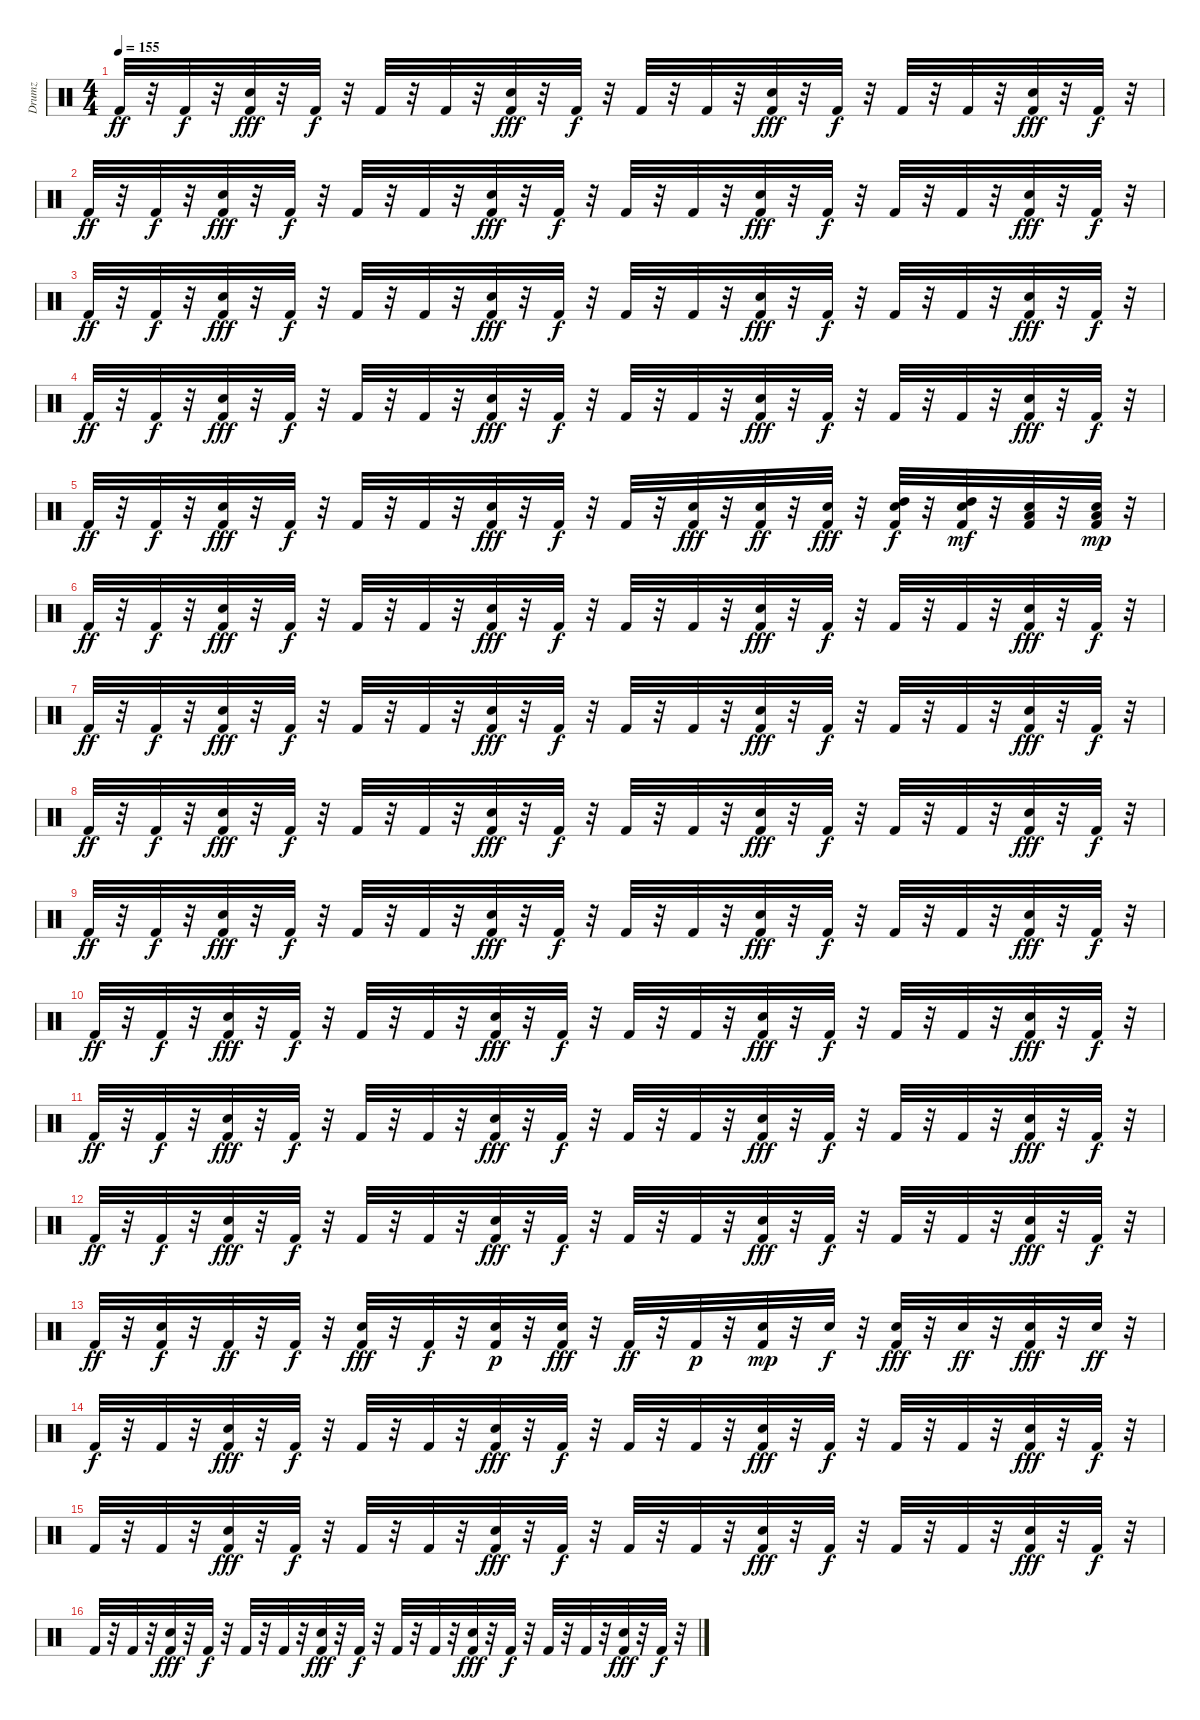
\track ("Drumz" "Drumz") {instrument percussion}
\staff {score}
\articulation defaults
\ts (4 4)
\tempo 155
\clef neutral
\ks c "Kick (hit) 2".32{dy ff}
r.32 "Kick (hit) 2".32{dy f} r.32 ("Kick (hit) 2" "Snare (hit) 2").32{dy fff} r.32 "Kick (hit) 2".32{dy f} r.32 "Kick (hit) 2".32 r.32 "Kick (hit) 2".32 r.32 ("Kick (hit) 2" "Snare (hit) 2").32{dy fff} r.32 "Kick (hit) 2".32{dy f} r.32 "Kick (hit) 2".32 r.32 "Kick (hit) 2".32 r.32 ("Kick (hit) 2" "Snare (hit) 2").32{dy fff} r.32 "Kick (hit) 2".32{dy f} r.32 "Kick (hit) 2".32 r.32 "Kick (hit) 2".32 r.32 ("Kick (hit) 2" "Snare (hit) 2").32{dy fff} r.32 "Kick (hit) 2".32{dy f} r.32 |
"Kick (hit) 2".32{dy ff} r.32 "Kick (hit) 2".32{dy f} r.32 ("Kick (hit) 2" "Snare (hit) 2").32{dy fff} r.32 "Kick (hit) 2".32{dy f} r.32 "Kick (hit) 2".32 r.32 "Kick (hit) 2".32 r.32 ("Kick (hit) 2" "Snare (hit) 2").32{dy fff} r.32 "Kick (hit) 2".32{dy f} r.32 "Kick (hit) 2".32 r.32 "Kick (hit) 2".32 r.32 ("Kick (hit) 2" "Snare (hit) 2").32{dy fff} r.32 "Kick (hit) 2".32{dy f} r.32 "Kick (hit) 2".32 r.32 "Kick (hit) 2".32 r.32 ("Kick (hit) 2" "Snare (hit) 2").32{dy fff} r.32 "Kick (hit) 2".32{dy f} r.32 |
"Kick (hit) 2".32{dy ff} r.32 "Kick (hit) 2".32{dy f} r.32 ("Kick (hit) 2" "Snare (hit) 2").32{dy fff} r.32 "Kick (hit) 2".32{dy f} r.32 "Kick (hit) 2".32 r.32 "Kick (hit) 2".32 r.32 ("Kick (hit) 2" "Snare (hit) 2").32{dy fff} r.32 "Kick (hit) 2".32{dy f} r.32 "Kick (hit) 2".32 r.32 "Kick (hit) 2".32 r.32 ("Kick (hit) 2" "Snare (hit) 2").32{dy fff} r.32 "Kick (hit) 2".32{dy f} r.32 "Kick (hit) 2".32 r.32 "Kick (hit) 2".32 r.32 ("Kick (hit) 2" "Snare (hit) 2").32{dy fff} r.32 "Kick (hit) 2".32{dy f} r.32 |
"Kick (hit) 2".32{dy ff} r.32 "Kick (hit) 2".32{dy f} r.32 ("Kick (hit) 2" "Snare (hit) 2").32{dy fff} r.32 "Kick (hit) 2".32{dy f} r.32 "Kick (hit) 2".32 r.32 "Kick (hit) 2".32 r.32 ("Kick (hit) 2" "Snare (hit) 2").32{dy fff} r.32 "Kick (hit) 2".32{dy f} r.32 "Kick (hit) 2".32 r.32 "Kick (hit) 2".32 r.32 ("Kick (hit) 2" "Snare (hit) 2").32{dy fff} r.32 "Kick (hit) 2".32{dy f} r.32 "Kick (hit) 2".32 r.32 "Kick (hit) 2".32 r.32 ("Kick (hit) 2" "Snare (hit) 2").32{dy fff} r.32 "Kick (hit) 2".32{dy f} r.32 |
"Kick (hit) 2".32{dy ff} r.32 "Kick (hit) 2".32{dy f} r.32 ("Kick (hit) 2" "Snare (hit) 2").32{dy fff} r.32 "Kick (hit) 2".32{dy f} r.32 "Kick (hit) 2".32 r.32 "Kick (hit) 2".32 r.32 ("Kick (hit) 2" "Snare (hit) 2").32{dy fff} r.32 "Kick (hit) 2".32{dy f} r.32 "Kick (hit) 2".32 r.32 ("Kick (hit) 2" "Snare (hit) 2").32{dy fff} r.32 ("Kick (hit) 2" "Snare (hit) 2").32{dy ff} r.32 ("Kick (hit) 2" "Snare (hit) 2").32{dy fff} r.32 ("Snare (hit) 2" "High Tom (hit)" "Kick (hit) 2").32{dy f} r.32 ("Snare (hit) 2" "High Tom (hit)" "Kick (hit) 2").32{dy mf} r.32 ("Snare (hit) 2" "Low Tom (hit)" "Kick (hit) 2").32 r.32 ("Kick (hit) 2" "Snare (hit) 2" "Low Tom (hit)").32{dy mp} r.32 |
"Kick (hit) 2".32{dy ff} r.32 "Kick (hit) 2".32{dy f} r.32 ("Kick (hit) 2" "Snare (hit) 2").32{dy fff} r.32 "Kick (hit) 2".32{dy f} r.32 "Kick (hit) 2".32 r.32 "Kick (hit) 2".32 r.32 ("Kick (hit) 2" "Snare (hit) 2").32{dy fff} r.32 "Kick (hit) 2".32{dy f} r.32 "Kick (hit) 2".32 r.32 "Kick (hit) 2".32 r.32 ("Kick (hit) 2" "Snare (hit) 2").32{dy fff} r.32 "Kick (hit) 2".32{dy f} r.32 "Kick (hit) 2".32 r.32 "Kick (hit) 2".32 r.32 ("Kick (hit) 2" "Snare (hit) 2").32{dy fff} r.32 "Kick (hit) 2".32{dy f} r.32 |
"Kick (hit) 2".32{dy ff} r.32 "Kick (hit) 2".32{dy f} r.32 ("Kick (hit) 2" "Snare (hit) 2").32{dy fff} r.32 "Kick (hit) 2".32{dy f} r.32 "Kick (hit) 2".32 r.32 "Kick (hit) 2".32 r.32 ("Kick (hit) 2" "Snare (hit) 2").32{dy fff} r.32 "Kick (hit) 2".32{dy f} r.32 "Kick (hit) 2".32 r.32 "Kick (hit) 2".32 r.32 ("Kick (hit) 2" "Snare (hit) 2").32{dy fff} r.32 "Kick (hit) 2".32{dy f} r.32 "Kick (hit) 2".32 r.32 "Kick (hit) 2".32 r.32 ("Kick (hit) 2" "Snare (hit) 2").32{dy fff} r.32 "Kick (hit) 2".32{dy f} r.32 |
"Kick (hit) 2".32{dy ff} r.32 "Kick (hit) 2".32{dy f} r.32 ("Kick (hit) 2" "Snare (hit) 2").32{dy fff} r.32 "Kick (hit) 2".32{dy f} r.32 "Kick (hit) 2".32 r.32 "Kick (hit) 2".32 r.32 ("Kick (hit) 2" "Snare (hit) 2").32{dy fff} r.32 "Kick (hit) 2".32{dy f} r.32 "Kick (hit) 2".32 r.32 "Kick (hit) 2".32 r.32 ("Kick (hit) 2" "Snare (hit) 2").32{dy fff} r.32 "Kick (hit) 2".32{dy f} r.32 "Kick (hit) 2".32 r.32 "Kick (hit) 2".32 r.32 ("Kick (hit) 2" "Snare (hit) 2").32{dy fff} r.32 "Kick (hit) 2".32{dy f} r.32 |
"Kick (hit) 2".32{dy ff} r.32 "Kick (hit) 2".32{dy f} r.32 ("Kick (hit) 2" "Snare (hit) 2").32{dy fff} r.32 "Kick (hit) 2".32{dy f} r.32 "Kick (hit) 2".32 r.32 "Kick (hit) 2".32 r.32 ("Kick (hit) 2" "Snare (hit) 2").32{dy fff} r.32 "Kick (hit) 2".32{dy f} r.32 "Kick (hit) 2".32 r.32 "Kick (hit) 2".32 r.32 ("Kick (hit) 2" "Snare (hit) 2").32{dy fff} r.32 "Kick (hit) 2".32{dy f} r.32 "Kick (hit) 2".32 r.32 "Kick (hit) 2".32 r.32 ("Kick (hit) 2" "Snare (hit) 2").32{dy fff} r.32 "Kick (hit) 2".32{dy f} r.32 |
"Kick (hit) 2".32{dy ff} r.32 "Kick (hit) 2".32{dy f} r.32 ("Kick (hit) 2" "Snare (hit) 2").32{dy fff} r.32 "Kick (hit) 2".32{dy f} r.32 "Kick (hit) 2".32 r.32 "Kick (hit) 2".32 r.32 ("Kick (hit) 2" "Snare (hit) 2").32{dy fff} r.32 "Kick (hit) 2".32{dy f} r.32 "Kick (hit) 2".32 r.32 "Kick (hit) 2".32 r.32 ("Kick (hit) 2" "Snare (hit) 2").32{dy fff} r.32 "Kick (hit) 2".32{dy f} r.32 "Kick (hit) 2".32 r.32 "Kick (hit) 2".32 r.32 ("Kick (hit) 2" "Snare (hit) 2").32{dy fff} r.32 "Kick (hit) 2".32{dy f} r.32 |
"Kick (hit) 2".32{dy ff} r.32 "Kick (hit) 2".32{dy f} r.32 ("Kick (hit) 2" "Snare (hit) 2").32{dy fff} r.32 "Kick (hit) 2".32{dy f} r.32 "Kick (hit) 2".32 r.32 "Kick (hit) 2".32 r.32 ("Kick (hit) 2" "Snare (hit) 2").32{dy fff} r.32 "Kick (hit) 2".32{dy f} r.32 "Kick (hit) 2".32 r.32 "Kick (hit) 2".32 r.32 ("Kick (hit) 2" "Snare (hit) 2").32{dy fff} r.32 "Kick (hit) 2".32{dy f} r.32 "Kick (hit) 2".32 r.32 "Kick (hit) 2".32 r.32 ("Kick (hit) 2" "Snare (hit) 2").32{dy fff} r.32 "Kick (hit) 2".32{dy f} r.32 |
"Kick (hit) 2".32{dy ff} r.32 "Kick (hit) 2".32{dy f} r.32 ("Kick (hit) 2" "Snare (hit) 2").32{dy fff} r.32 "Kick (hit) 2".32{dy f} r.32 "Kick (hit) 2".32 r.32 "Kick (hit) 2".32 r.32 ("Kick (hit) 2" "Snare (hit) 2").32{dy fff} r.32 "Kick (hit) 2".32{dy f} r.32 "Kick (hit) 2".32 r.32 "Kick (hit) 2".32 r.32 ("Kick (hit) 2" "Snare (hit) 2").32{dy fff} r.32 "Kick (hit) 2".32{dy f} r.32 "Kick (hit) 2".32 r.32 "Kick (hit) 2".32 r.32 ("Kick (hit) 2" "Snare (hit) 2").32{dy fff} r.32 "Kick (hit) 2".32{dy f} r.32 |
"Kick (hit) 2".32{dy ff} r.32 ("Kick (hit) 2" "Snare (hit) 2").32{dy f} r.32 "Kick (hit) 2".32{dy ff} r.32 "Kick (hit) 2".32{dy f} r.32 ("Kick (hit) 2" "Snare (hit) 2").32{dy fff} r.32 "Kick (hit) 2".32{dy f} r.32 ("Kick (hit) 2" "Snare (hit) 2").32{dy p} r.32 ("Kick (hit) 2" "Snare (hit) 2").32{dy fff} r.32 "Kick (hit) 2".32{dy ff} r.32 "Kick (hit) 2".32{dy p} r.32 ("Kick (hit) 2" "Snare (hit) 2").32{dy mp} r.32 "Snare (hit) 2".32{dy f} r.32 ("Kick (hit) 2" "Snare (hit) 2").32{dy fff} r.32 "Snare (hit) 2".32{dy ff} r.32 ("Kick (hit) 2" "Snare (hit) 2").32{dy fff} r.32 "Snare (hit) 2".32{dy ff} r.32 |
"Kick (hit) 2".32{dy f} r.32 "Kick (hit) 2".32 r.32 ("Kick (hit) 2" "Snare (hit) 2").32{dy fff} r.32 "Kick (hit) 2".32{dy f} r.32 "Kick (hit) 2".32 r.32 "Kick (hit) 2".32 r.32 ("Kick (hit) 2" "Snare (hit) 2").32{dy fff} r.32 "Kick (hit) 2".32{dy f} r.32 "Kick (hit) 2".32 r.32 "Kick (hit) 2".32 r.32 ("Kick (hit) 2" "Snare (hit) 2").32{dy fff} r.32 "Kick (hit) 2".32{dy f} r.32 "Kick (hit) 2".32 r.32 "Kick (hit) 2".32 r.32 ("Kick (hit) 2" "Snare (hit) 2").32{dy fff} r.32 "Kick (hit) 2".32{dy f} r.32 |
"Kick (hit) 2".32 r.32 "Kick (hit) 2".32 r.32 ("Kick (hit) 2" "Snare (hit) 2").32{dy fff} r.32 "Kick (hit) 2".32{dy f} r.32 "Kick (hit) 2".32 r.32 "Kick (hit) 2".32 r.32 ("Kick (hit) 2" "Snare (hit) 2").32{dy fff} r.32 "Kick (hit) 2".32{dy f} r.32 "Kick (hit) 2".32 r.32 "Kick (hit) 2".32 r.32 ("Kick (hit) 2" "Snare (hit) 2").32{dy fff} r.32 "Kick (hit) 2".32{dy f} r.32 "Kick (hit) 2".32 r.32 "Kick (hit) 2".32 r.32 ("Kick (hit) 2" "Snare (hit) 2").32{dy fff} r.32 "Kick (hit) 2".32{dy f} r.32 |
"Kick (hit) 2".32 r.32 "Kick (hit) 2".32 r.32 ("Kick (hit) 2" "Snare (hit) 2").32{dy fff} r.32 "Kick (hit) 2".32{dy f} r.32 "Kick (hit) 2".32 r.32 "Kick (hit) 2".32 r.32 ("Kick (hit) 2" "Snare (hit) 2").32{dy fff} r.32 "Kick (hit) 2".32{dy f} r.32 "Kick (hit) 2".32 r.32 "Kick (hit) 2".32 r.32 ("Kick (hit) 2" "Snare (hit) 2").32{dy fff} r.32 "Kick (hit) 2".32{dy f} r.32 "Kick (hit) 2".32 r.32 "Kick (hit) 2".32 r.32 ("Kick (hit) 2" "Snare (hit) 2").32{dy fff} r.32 "Kick (hit) 2".32{dy f} r.32
